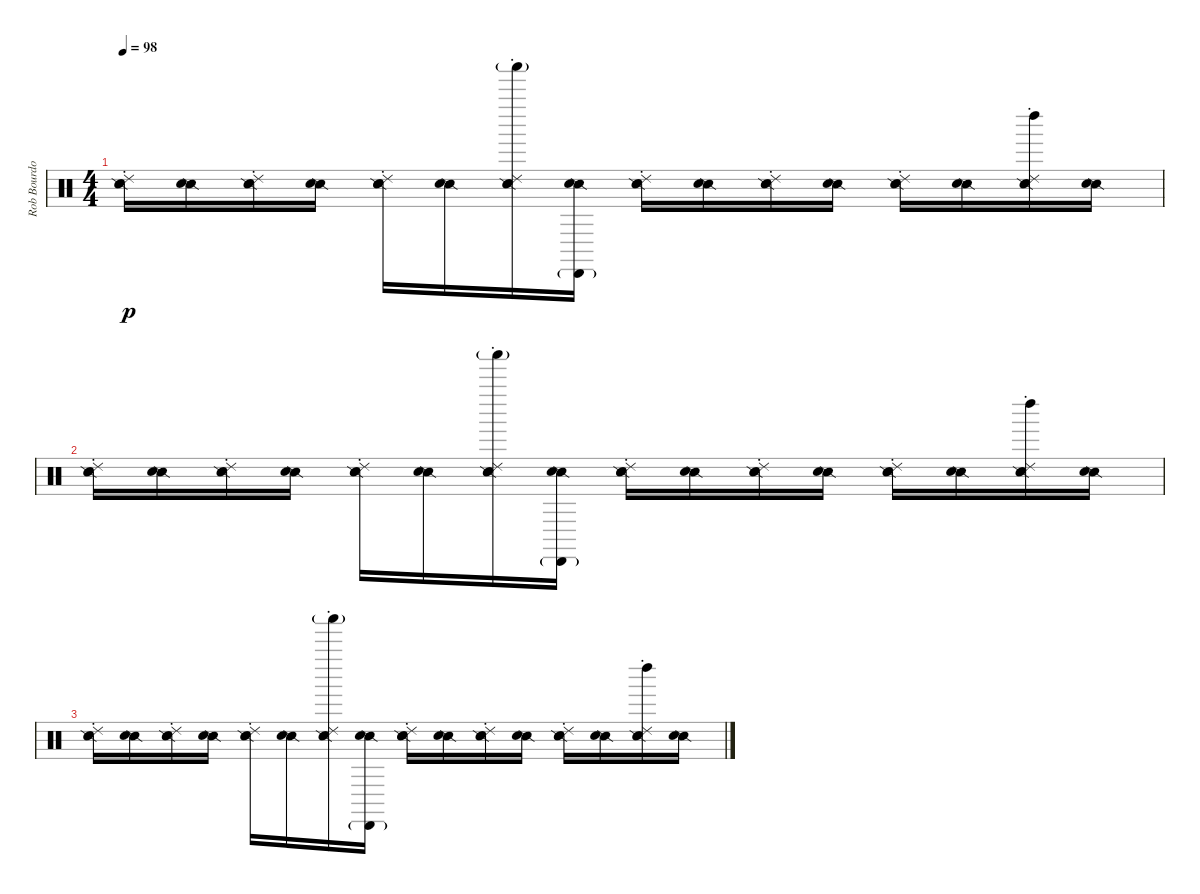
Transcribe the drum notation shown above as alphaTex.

\track ("Rob Bourdon (Drums)" "Rob Bourdo") {instrument percussion}
\staff {score}
\articulation defaults
\ts (4 4)
\tempo 98
\clef neutral
\ks c
("Ride (choke) 2" "Snare (side stick) 2" "Hand Clap (hit)").16{dy p} ("Snare (side stick) 2" "Hand Clap (hit)").16 ("Ride (choke) 2" "Snare (side stick) 2" "Hand Clap (hit)").16 ("Snare (side stick) 2" "Hand Clap (hit)").16 ("Ride (choke) 2" "Snare (side stick) 2" "Hand Clap (hit)").16 ("Snare (side stick) 2" "Hand Clap (hit)").16 ("Ride (choke) 2" "Shaker (hit)"{g} "Snare (side stick) 2" "Hand Clap (hit)").16 ("Cabasa (hit)"{g} "Snare (side stick) 2" "Hand Clap (hit)").16 ("Ride (choke) 2" "Snare (side stick) 2" "Hand Clap (hit)").16 ("Snare (side stick) 2" "Hand Clap (hit)").16 ("Ride (choke) 2" "Snare (side stick) 2" "Hand Clap (hit)").16 ("Snare (side stick) 2" "Hand Clap (hit)").16 ("Ride (choke) 2" "Snare (side stick) 2" "Hand Clap (hit)").16 ("Snare (side stick) 2" "Hand Clap (hit)").16 ("Ride (choke) 2" "Left Maraca (hit)" "Snare (side stick) 2" "Hand Clap (hit)").16 ("Snare (side stick) 2" "Hand Clap (hit)").16 |
("Ride (choke) 2" "Snare (side stick) 2" "Hand Clap (hit)").16 ("Snare (side stick) 2" "Hand Clap (hit)").16 ("Ride (choke) 2" "Snare (side stick) 2" "Hand Clap (hit)").16 ("Snare (side stick) 2" "Hand Clap (hit)").16 ("Ride (choke) 2" "Snare (side stick) 2" "Hand Clap (hit)").16 ("Snare (side stick) 2" "Hand Clap (hit)").16 ("Ride (choke) 2" "Shaker (hit)"{g} "Snare (side stick) 2" "Hand Clap (hit)").16 ("Cabasa (hit)"{g} "Snare (side stick) 2" "Hand Clap (hit)").16 ("Ride (choke) 2" "Snare (side stick) 2" "Hand Clap (hit)").16 ("Snare (side stick) 2" "Hand Clap (hit)").16 ("Ride (choke) 2" "Snare (side stick) 2" "Hand Clap (hit)").16 ("Snare (side stick) 2" "Hand Clap (hit)").16 ("Ride (choke) 2" "Snare (side stick) 2" "Hand Clap (hit)").16 ("Snare (side stick) 2" "Hand Clap (hit)").16 ("Ride (choke) 2" "Left Maraca (hit)" "Snare (side stick) 2" "Hand Clap (hit)").16 ("Snare (side stick) 2" "Hand Clap (hit)").16 |
("Ride (choke) 2" "Snare (side stick) 2" "Hand Clap (hit)").16 ("Snare (side stick) 2" "Hand Clap (hit)").16 ("Ride (choke) 2" "Snare (side stick) 2" "Hand Clap (hit)").16 ("Snare (side stick) 2" "Hand Clap (hit)").16 ("Ride (choke) 2" "Snare (side stick) 2" "Hand Clap (hit)").16 ("Snare (side stick) 2" "Hand Clap (hit)").16 ("Ride (choke) 2" "Shaker (hit)"{g} "Snare (side stick) 2" "Hand Clap (hit)").16 ("Cabasa (hit)"{g} "Snare (side stick) 2" "Hand Clap (hit)").16 ("Ride (choke) 2" "Snare (side stick) 2" "Hand Clap (hit)").16 ("Snare (side stick) 2" "Hand Clap (hit)").16 ("Ride (choke) 2" "Snare (side stick) 2" "Hand Clap (hit)").16 ("Snare (side stick) 2" "Hand Clap (hit)").16 ("Ride (choke) 2" "Snare (side stick) 2" "Hand Clap (hit)").16 ("Snare (side stick) 2" "Hand Clap (hit)").16 ("Ride (choke) 2" "Left Maraca (hit)" "Snare (side stick) 2" "Hand Clap (hit)").16 ("Snare (side stick) 2" "Hand Clap (hit)").16
